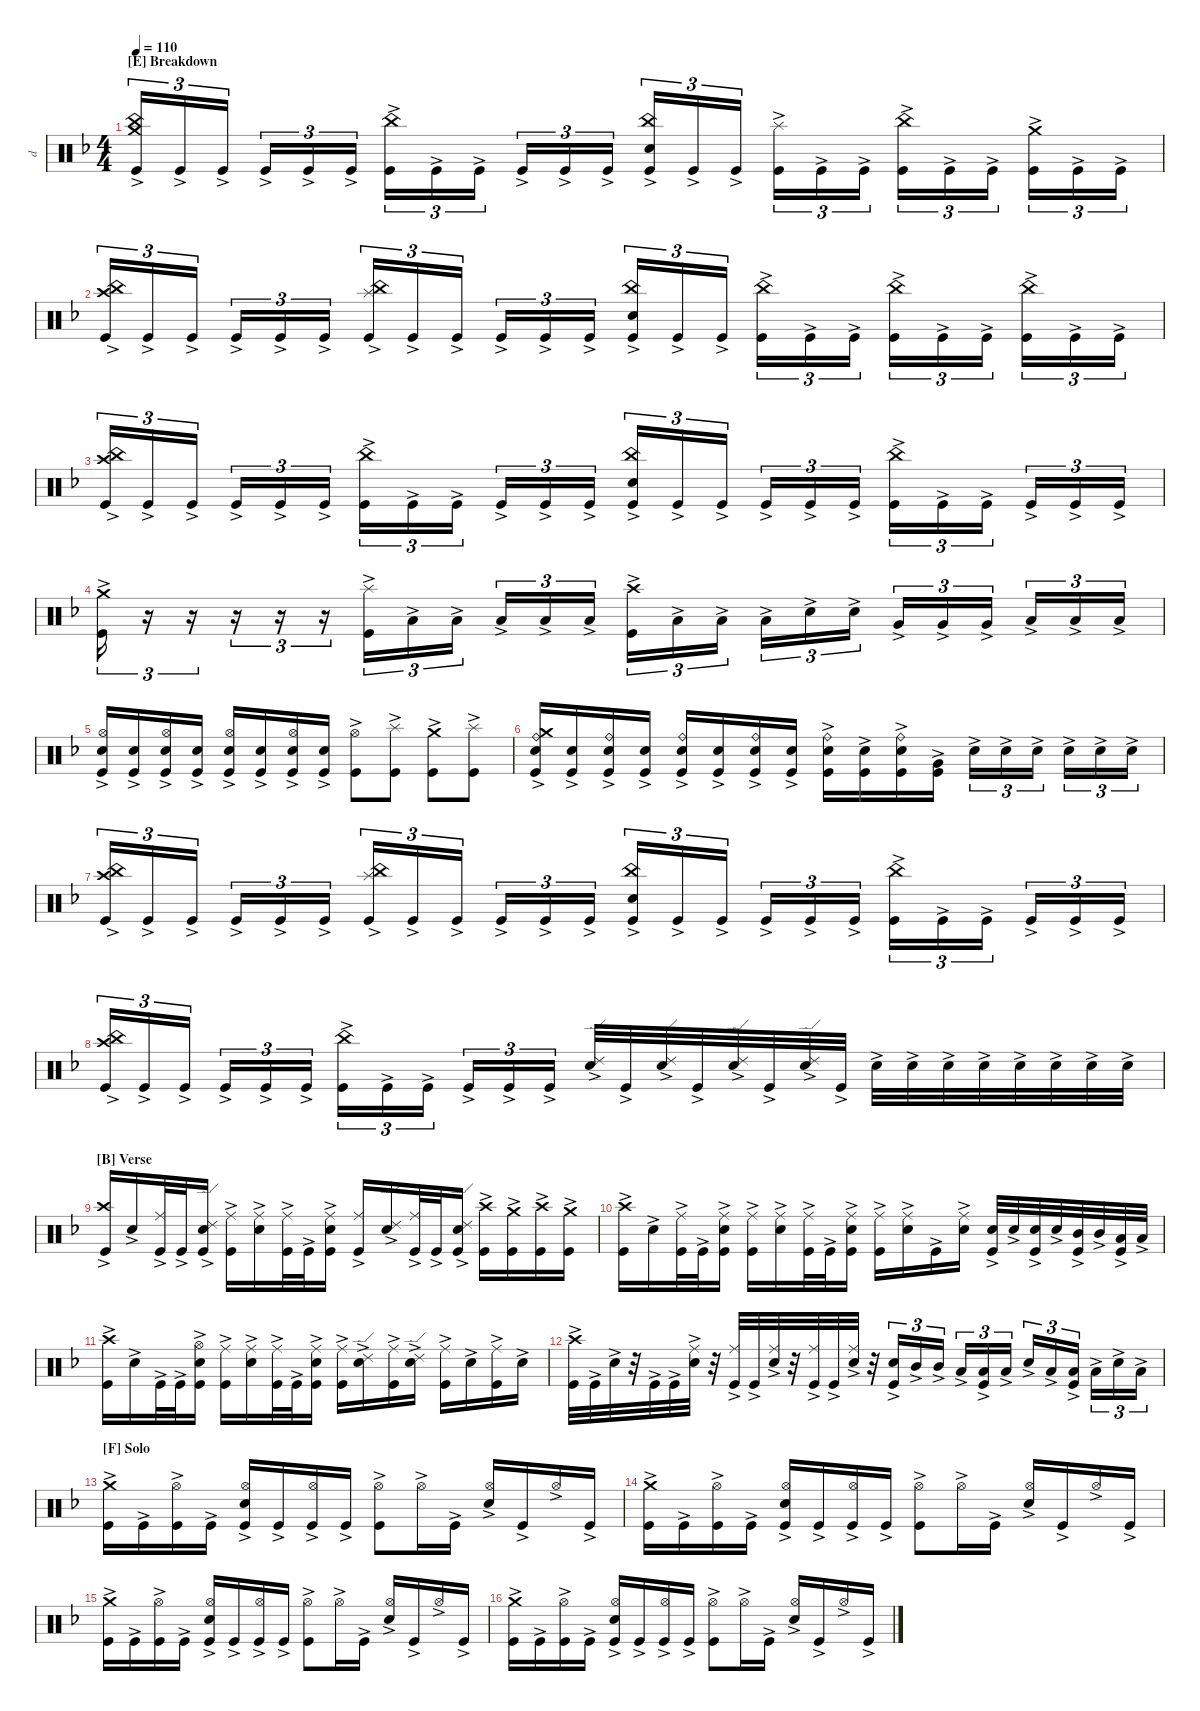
\defaultSystemsLayout 4
\hideDynamics
\bracketExtendMode nobrackets
\otherSystemsTrackNameOrientation horizontal
\track ("Drumkit" "d") {instrument percussion}
\staff {score}
\articulation defaults
\ts (4 4)
\section ("E" "Breakdown")
\tempo 110
\clef neutral
\ks dminor
("China (hit)"{ac acc forcenatural} "Crash medium (hit)"{ac acc forcenatural} "Kick (hit)"{ac acc forcenatural}).16{tu (3 2) dy mf beam Up} "Kick (hit)"{ac acc forcenatural}.16{tu (3 2) beam Up} "Kick (hit)"{ac acc forcenatural}.16{tu (3 2) beam Up} "Kick (hit)"{ac acc forcenatural}.16{tu (3 2) beam Up} "Kick (hit)"{ac acc forcenatural}.16{tu (3 2) beam Up} "Kick (hit)"{ac acc forcenatural}.16{tu (3 2) beam Up} ("China (hit)"{ac acc forcenatural} "Kick (hit)"{ac acc forcenatural}).16{tu (3 2) beam Down} "Kick (hit)"{ac acc forcenatural}.16{tu (3 2) beam Down} "Kick (hit)"{ac acc forcenatural}.16{tu (3 2) beam Down} "Kick (hit)"{ac acc forcenatural}.16{tu (3 2) beam Up} "Kick (hit)"{ac acc forcenatural}.16{tu (3 2) beam Up} "Kick (hit)"{ac acc forcenatural}.16{tu (3 2) beam Up} ("China (hit)"{ac acc forcenatural} "Snare (hit) 2"{ac acc forcenatural} "Kick (hit)"{ac acc forcenatural}).16{tu (3 2) beam Up} "Kick (hit)"{ac acc forcenatural}.16{tu (3 2) beam Up} "Kick (hit)"{ac acc forcenatural}.16{tu (3 2) beam Up} ("Splash (hit)"{ac acc forcenatural} "Kick (hit)"{ac acc forcenatural}).16{tu (3 2) beam Down} "Kick (hit)"{ac acc forcenatural}.16{tu (3 2) beam Down} "Kick (hit)"{ac acc forcenatural}.16{tu (3 2) beam Down} ("China (hit)"{ac acc forcenatural} "Kick (hit)"{ac acc forcenatural}).16{tu (3 2) beam Down} "Kick (hit)"{ac acc forcenatural}.16{tu (3 2) beam Down} "Kick (hit)"{ac acc forcenatural}.16{tu (3 2) beam Down} ("Crash medium (hit)"{ac acc forcenatural} "Kick (hit)"{ac acc forcenatural}).16{tu (3 2) beam Down} "Kick (hit)"{ac acc forcenatural}.16{tu (3 2) beam Down} "Kick (hit)"{ac acc forcenatural}.16{tu (3 2) beam Down} |
("China (hit)"{ac acc forcenatural} "Crash high (hit)"{ac acc forcenatural} "Kick (hit)"{ac acc forcenatural}).16{tu (3 2) beam Up} "Kick (hit)"{ac acc forcenatural}.16{tu (3 2) beam Up} "Kick (hit)"{ac acc forcenatural}.16{tu (3 2) beam Up} "Kick (hit)"{ac acc forcenatural}.16{tu (3 2) beam Up} "Kick (hit)"{ac acc forcenatural}.16{tu (3 2) beam Up} "Kick (hit)"{ac acc forcenatural}.16{tu (3 2) beam Up} ("China (hit)"{ac acc forcenatural} "Splash (hit)"{ac acc forcenatural} "Kick (hit)"{ac acc forcenatural}).16{tu (3 2) beam Up} "Kick (hit)"{ac acc forcenatural}.16{tu (3 2) beam Up} "Kick (hit)"{ac acc forcenatural}.16{tu (3 2) beam Up} "Kick (hit)"{ac acc forcenatural}.16{tu (3 2) beam Up} "Kick (hit)"{ac acc forcenatural}.16{tu (3 2) beam Up} "Kick (hit)"{ac acc forcenatural}.16{tu (3 2) beam Up} ("China (hit)"{ac acc forcenatural} "Snare (hit) 2"{ac acc forcenatural} "Kick (hit)"{ac acc forcenatural}).16{tu (3 2) beam Up} "Kick (hit)"{ac acc forcenatural}.16{tu (3 2) beam Up} "Kick (hit)"{ac acc forcenatural}.16{tu (3 2) beam Up} ("China (hit)"{ac acc forcenatural} "Kick (hit)"{ac acc forcenatural}).16{tu (3 2) beam Down} "Kick (hit)"{ac acc forcenatural}.16{tu (3 2) beam Down} "Kick (hit)"{ac acc forcenatural}.16{tu (3 2) beam Down} ("China (hit)"{ac acc forcenatural} "Kick (hit)"{ac acc forcenatural}).16{tu (3 2) beam Down} "Kick (hit)"{ac acc forcenatural}.16{tu (3 2) beam Down} "Kick (hit)"{ac acc forcenatural}.16{tu (3 2) beam Down} ("China (hit)"{ac acc forcenatural} "Kick (hit)"{ac acc forcenatural}).16{tu (3 2) beam Down} "Kick (hit)"{ac acc forcenatural}.16{tu (3 2) beam Down} "Kick (hit)"{ac acc forcenatural}.16{tu (3 2) beam Down} |
("China (hit)"{ac acc forcenatural} "Crash high (hit)"{ac acc forcenatural} "Kick (hit)"{ac acc forcenatural}).16{tu (3 2) beam Up} "Kick (hit)"{ac acc forcenatural}.16{tu (3 2) beam Up} "Kick (hit)"{ac acc forcenatural}.16{tu (3 2) beam Up} "Kick (hit)"{ac acc forcenatural}.16{tu (3 2) beam Up} "Kick (hit)"{ac acc forcenatural}.16{tu (3 2) beam Up} "Kick (hit)"{ac acc forcenatural}.16{tu (3 2) beam Up} ("China (hit)"{ac acc forcenatural} "Kick (hit)"{ac acc forcenatural}).16{tu (3 2) beam Down} "Kick (hit)"{ac acc forcenatural}.16{tu (3 2) beam Down} "Kick (hit)"{ac acc forcenatural}.16{tu (3 2) beam Down} "Kick (hit)"{ac acc forcenatural}.16{tu (3 2) beam Up} "Kick (hit)"{ac acc forcenatural}.16{tu (3 2) beam Up} "Kick (hit)"{ac acc forcenatural}.16{tu (3 2) beam Up} ("China (hit)"{ac acc forcenatural} "Snare (hit) 2"{ac acc forcenatural} "Kick (hit)"{ac acc forcenatural}).16{tu (3 2) beam Up} "Kick (hit)"{ac acc forcenatural}.16{tu (3 2) beam Up} "Kick (hit)"{ac acc forcenatural}.16{tu (3 2) beam Up} "Kick (hit)"{ac acc forcenatural}.16{tu (3 2) beam Up} "Kick (hit)"{ac acc forcenatural}.16{tu (3 2) beam Up} "Kick (hit)"{ac acc forcenatural}.16{tu (3 2) beam Up} ("China (hit)"{ac acc forcenatural} "Kick (hit)"{ac acc forcenatural}).16{tu (3 2) beam Down} "Kick (hit)"{ac acc forcenatural}.16{tu (3 2) beam Down} "Kick (hit)"{ac acc forcenatural}.16{tu (3 2) beam Down} "Kick (hit)"{ac acc forcenatural}.16{tu (3 2) beam Up} "Kick (hit)"{ac acc forcenatural}.16{tu (3 2) beam Up} "Kick (hit)"{ac acc forcenatural}.16{tu (3 2) beam Up} |
("Crash medium (hit)"{ac acc forcenatural} "Kick (hit)"{ac acc forcenatural}).16{tu (3 2) beam Down} r.16{tu (3 2) beam Down} r.16{tu (3 2) beam Down} r.16{tu (3 2) beam Down} r.16{tu (3 2) beam Down} r.16{tu (3 2) beam Down} ("Splash (hit)"{ac acc forcenatural} "Kick (hit)"{ac acc forcenatural}).16{tu (3 2) beam Down} "Low Tom (hit)"{ac acc forcenatural}.16{tu (3 2) beam Down} "Low Tom (hit)"{ac acc forcenatural}.16{tu (3 2) beam Down} "Low Tom (hit)"{ac acc forcenatural}.16{tu (3 2) beam Up} "Low Tom (hit)"{ac acc forcenatural}.16{tu (3 2) beam Up} "Low Tom (hit)"{ac acc forcenatural}.16{tu (3 2) beam Up} ("Crash high (hit)"{ac acc forcenatural} "Kick (hit)"{ac acc forcenatural}).16{tu (3 2) beam Down} "Low Tom (hit)"{ac acc forcenatural}.16{tu (3 2) beam Down} "Low Tom (hit)"{ac acc forcenatural}.16{tu (3 2) beam Down} "Low Tom (hit)"{ac acc forcenatural}.16{tu (3 2) beam Down} "Snare (hit) 2"{ac acc forcenatural}.16{tu (3 2) beam Down} "Snare (hit) 2"{ac acc forcenatural}.16{tu (3 2) beam Down} "Very Low Tom (hit)"{ac acc forcenatural}.16{tu (3 2) beam Up} "Very Low Tom (hit)"{ac acc forcenatural}.16{tu (3 2) beam Up} "Very Low Tom (hit)"{ac acc forcenatural}.16{tu (3 2) beam Up} "Low Floor Tom (hit)"{ac acc forcenatural}.16{tu (3 2) beam Up} "Low Floor Tom (hit)"{ac acc forcenatural}.16{tu (3 2) beam Up} "Low Floor Tom (hit)"{ac acc forcenatural}.16{tu (3 2) beam Up} |
("Hi-Hat (open)"{ac acc forcenatural} "Snare (hit) 2"{ac acc forcenatural} "Kick (hit)"{ac acc forcenatural}).16{beam Up} ("Snare (hit) 2"{ac acc forcenatural} "Kick (hit)"{ac acc forcenatural}).16{beam Up} ("Hi-Hat (open)"{ac acc forcenatural} "Snare (hit) 2"{ac acc forcenatural} "Kick (hit)"{ac acc forcenatural}).16{beam Up} ("Snare (hit) 2"{ac acc forcenatural} "Kick (hit)"{ac acc forcenatural}).16{beam Up} ("Hi-Hat (open)"{ac acc forcenatural} "Snare (hit) 2"{ac acc forcenatural} "Kick (hit)"{ac acc forcenatural}).16{beam Up} ("Snare (hit) 2"{ac acc forcenatural} "Kick (hit)"{ac acc forcenatural}).16{beam Up} ("Hi-Hat (open)"{ac acc forcenatural} "Snare (hit) 2"{ac acc forcenatural} "Kick (hit)"{ac acc forcenatural}).16{beam Up} ("Snare (hit) 2"{ac acc forcenatural} "Kick (hit)"{ac acc forcenatural}).16{beam Up} ("Hi-Hat (open)"{ac acc forcenatural} "Kick (hit)"{ac acc forcenatural}).8{beam Down} ("Splash (hit)"{ac acc forcenatural} "Kick (hit)"{ac acc forcenatural}).8{beam Down} ("Crash medium (hit)"{ac acc forcenatural} "Kick (hit)"{ac acc forcenatural}).8{beam Down} ("Splash (hit)"{ac acc forcenatural} "Kick (hit)"{ac acc forcenatural}).8{beam Down} |
("Crash medium (hit)"{ac acc forcenatural} "Ride (bell)"{ac acc forcenatural} "Snare (hit) 2"{ac acc forcenatural} "Kick (hit)"{ac acc forcenatural}).16{beam Up} ("Snare (hit) 2"{ac acc forcenatural} "Kick (hit)"{ac acc forcenatural}).16{beam Up} ("Ride (bell)"{ac acc forcenatural} "Snare (hit) 2"{ac acc forcenatural} "Kick (hit)"{ac acc forcenatural}).16{beam Up} ("Snare (hit) 2"{ac acc forcenatural} "Kick (hit)"{ac acc forcenatural}).16{beam Up} ("Ride (bell)"{ac acc forcenatural} "Snare (hit) 2"{ac acc forcenatural} "Kick (hit)"{ac acc forcenatural}).16{beam Up} ("Snare (hit) 2"{ac acc forcenatural} "Kick (hit)"{ac acc forcenatural}).16{beam Up} ("Ride (bell)"{ac acc forcenatural} "Snare (hit) 2"{ac acc forcenatural} "Kick (hit)"{ac acc forcenatural}).16{beam Up} ("Snare (hit) 2"{ac acc forcenatural} "Kick (hit)"{ac acc forcenatural}).16{beam Up} ("Ride (bell)"{ac acc forcenatural} "Snare (hit) 2"{ac acc forcenatural} "Kick (hit)"{ac acc forcenatural}).16{beam Down} ("Snare (hit) 2"{ac acc forcenatural} "Kick (hit)"{ac acc forcenatural}).16{beam Down} ("Ride (bell)"{ac acc forcenatural} "Snare (hit) 2"{ac acc forcenatural} "Kick (hit)"{ac acc forcenatural}).16{beam Down} ("Very Low Tom (hit)"{ac acc forcenatural} "Kick (hit)"{ac acc forcenatural}).16{beam Down} "Snare (hit) 2"{ac acc forcenatural}.16{tu (3 2) beam Down} "Snare (hit) 2"{ac acc forcenatural}.16{tu (3 2) beam Down} "Snare (hit) 2"{ac acc forcenatural}.16{tu (3 2) beam Down} "Snare (hit) 2"{ac acc forcenatural}.16{tu (3 2) beam Down} "Snare (hit) 2"{ac acc forcenatural}.16{tu (3 2) beam Down} "Snare (hit) 2"{ac acc forcenatural}.16{tu (3 2) beam Down} |
("China (hit)"{ac acc forcenatural} "Crash high (hit)"{ac acc forcenatural} "Kick (hit)"{ac acc forcenatural}).16{tu (3 2) beam Up} "Kick (hit)"{ac acc forcenatural}.16{tu (3 2) beam Up} "Kick (hit)"{ac acc forcenatural}.16{tu (3 2) beam Up} "Kick (hit)"{ac acc forcenatural}.16{tu (3 2) beam Up} "Kick (hit)"{ac acc forcenatural}.16{tu (3 2) beam Up} "Kick (hit)"{ac acc forcenatural}.16{tu (3 2) beam Up} ("China (hit)"{ac acc forcenatural} "Splash (hit)"{ac acc forcenatural} "Kick (hit)"{ac acc forcenatural}).16{tu (3 2) beam Up} "Kick (hit)"{ac acc forcenatural}.16{tu (3 2) beam Up} "Kick (hit)"{ac acc forcenatural}.16{tu (3 2) beam Up} "Kick (hit)"{ac acc forcenatural}.16{tu (3 2) beam Up} "Kick (hit)"{ac acc forcenatural}.16{tu (3 2) beam Up} "Kick (hit)"{ac acc forcenatural}.16{tu (3 2) beam Up} ("China (hit)"{ac acc forcenatural} "Snare (hit) 2"{ac acc forcenatural} "Kick (hit)"{ac acc forcenatural}).16{tu (3 2) beam Up} "Kick (hit)"{ac acc forcenatural}.16{tu (3 2) beam Up} "Kick (hit)"{ac acc forcenatural}.16{tu (3 2) beam Up} "Kick (hit)"{ac acc forcenatural}.16{tu (3 2) beam Up} "Kick (hit)"{ac acc forcenatural}.16{tu (3 2) beam Up} "Kick (hit)"{ac acc forcenatural}.16{tu (3 2) beam Up} ("China (hit)"{ac acc forcenatural} "Kick (hit)"{ac acc forcenatural}).16{tu (3 2) beam Down} "Kick (hit)"{ac acc forcenatural}.16{tu (3 2) beam Down} "Kick (hit)"{ac acc forcenatural}.16{tu (3 2) beam Down} "Kick (hit)"{ac acc forcenatural}.16{tu (3 2) beam Up} "Kick (hit)"{ac acc forcenatural}.16{tu (3 2) beam Up} "Kick (hit)"{ac acc forcenatural}.16{tu (3 2) beam Up} |
("China (hit)"{ac acc forcenatural} "Crash high (hit)"{ac acc forcenatural} "Kick (hit)"{ac acc forcenatural}).16{tu (3 2) beam Up} "Kick (hit)"{ac acc forcenatural}.16{tu (3 2) beam Up} "Kick (hit)"{ac acc forcenatural}.16{tu (3 2) beam Up} "Kick (hit)"{ac acc forcenatural}.16{tu (3 2) beam Up} "Kick (hit)"{ac acc forcenatural}.16{tu (3 2) beam Up} "Kick (hit)"{ac acc forcenatural}.16{tu (3 2) beam Up} ("China (hit)"{ac acc forcenatural} "Kick (hit)"{ac acc forcenatural}).16{tu (3 2) beam Down} "Kick (hit)"{ac acc forcenatural}.16{tu (3 2) beam Down} "Kick (hit)"{ac acc forcenatural}.16{tu (3 2) beam Down} "Kick (hit)"{ac acc forcenatural}.16{tu (3 2) beam Up} "Kick (hit)"{ac acc forcenatural}.16{tu (3 2) beam Up} "Kick (hit)"{ac acc forcenatural}.16{tu (3 2) beam Up} ("Ride (edge) 2"{ac acc forcenatural} "Snare (hit) 2"{ac acc forcenatural}).32{beam Up} "Kick (hit)"{ac acc forcenatural}.32{beam Up} ("Ride (edge) 2"{ac acc forcenatural} "Snare (hit) 2"{ac acc forcenatural}).32{beam Up} "Kick (hit)"{ac acc forcenatural}.32{beam Up} ("Ride (edge) 2"{ac acc forcenatural} "Snare (hit) 2"{ac acc forcenatural}).32{beam Up} "Kick (hit)"{ac acc forcenatural}.32{beam Up} ("Ride (edge) 2"{ac acc forcenatural} "Snare (hit) 2"{ac acc forcenatural}).32{beam Up} "Kick (hit)"{ac acc forcenatural}.32{beam Up} "Snare (hit) 2"{ac acc forcenatural}.32{beam Down} "Snare (hit) 2"{ac acc forcenatural}.32{beam Down} "Snare (hit) 2"{ac acc forcenatural}.32{beam Down} "Snare (hit) 2"{ac acc forcenatural}.32{beam Down} "Snare (hit) 2"{ac acc forcenatural}.32{beam Down} "Snare (hit) 2"{ac acc forcenatural}.32{beam Down} "Snare (hit) 2"{ac acc forcenatural}.32{beam Down} "Snare (hit) 2"{ac acc forcenatural}.32{beam Down} |
\section ("B" "Verse")
("Crash high (hit)"{ac acc forcenatural} "Kick (hit)"{ac acc forcenatural}).16{beam Up} "Snare (hit) 2"{ac acc forcenatural}.16{beam Up} ("Ride (middle)"{ac acc forcenatural} "Kick (hit)"{ac acc forcenatural}).32{beam Up} "Kick (hit)"{ac acc forcenatural}.32{beam Up} ("Ride (edge) 2"{ac acc forcenatural} "Snare (hit) 2"{ac acc forcenatural} "Kick (hit)"{ac acc forcenatural}).16{beam Up} ("Ride (middle)"{ac acc forcenatural} "Kick (hit)"{ac acc forcenatural}).16{beam Down} ("Ride (middle)"{ac acc forcenatural} "Snare (hit) 2"{ac acc forcenatural}).16{beam Down} ("Ride (middle)"{ac acc forcenatural} "Kick (hit)"{ac acc forcenatural}).32{beam Down} "Kick (hit)"{ac acc forcenatural}.32{beam Down} ("Ride (middle)"{ac acc forcenatural} "Snare (hit) 2"{ac acc forcenatural} "Kick (hit)"{ac acc forcenatural}).16{beam Down} ("Ride (middle)"{ac acc forcenatural} "Kick (hit)"{ac acc forcenatural}).16{beam Up} ("Ride (edge) 2"{ac acc forcenatural} "Snare (hit) 2"{ac acc forcenatural}).16{beam Up} ("Ride (middle)"{ac acc forcenatural} "Kick (hit)"{ac acc forcenatural}).32{beam Up} "Kick (hit)"{ac acc forcenatural}.32{beam Up} ("Ride (edge) 2"{ac acc forcenatural} "Snare (hit) 2"{ac acc forcenatural} "Kick (hit)"{ac acc forcenatural}).16{beam Up} ("Crash high (hit)"{ac acc forcenatural} "Kick (hit)"{ac acc forcenatural}).16{beam Down} ("Crash medium (hit)"{ac acc forcenatural} "Kick (hit)"{ac acc forcenatural}).16{beam Down} ("Crash high (hit)"{ac acc forcenatural} "Kick (hit)"{ac acc forcenatural}).16{beam Down} ("Crash medium (hit)"{ac acc forcenatural} "Kick (hit)"{ac acc forcenatural}).16{beam Down} |
("Crash high (hit)"{ac acc forcenatural} "Kick (hit)"{ac acc forcenatural}).16{dy ff beam Down} "Snare (hit) 2"{ac acc forcenatural}.16{dy mf beam Down} ("Ride (middle)"{ac acc forcenatural} "Kick (hit)"{ac acc forcenatural}).32{beam Down} "Kick (hit)"{ac acc forcenatural}.32{beam Down} ("Ride (middle)"{ac acc forcenatural} "Snare (hit) 2"{ac acc forcenatural} "Kick (hit)"{ac acc forcenatural}).16{beam Down} ("Ride (middle)"{ac acc forcenatural} "Kick (hit)"{ac acc forcenatural}).16{beam Down} ("Ride (middle)"{ac acc forcenatural} "Snare (hit) 2"{ac acc forcenatural}).16{beam Down} ("Ride (middle)"{ac acc forcenatural} "Kick (hit)"{ac acc forcenatural}).32{beam Down} "Kick (hit)"{ac acc forcenatural}.32{beam Down} ("Ride (middle)"{ac acc forcenatural} "Snare (hit) 2"{ac acc forcenatural} "Kick (hit)"{ac acc forcenatural}).16{beam Down} ("Ride (middle)"{ac acc forcenatural} "Kick (hit)"{ac acc forcenatural}).16{beam Down} ("Ride (middle)"{ac acc forcenatural} "Snare (hit) 2"{ac acc forcenatural}).16{beam Down} "Kick (hit)"{ac acc forcenatural}.16{beam Down} ("Ride (middle)"{ac acc forcenatural} "Snare (hit) 2"{ac acc forcenatural}).16{beam Down} ("Snare (hit) 2"{ac acc forcenatural} "Kick (hit)"{ac acc forcenatural}).32{beam Up} "Snare (hit) 2"{ac acc forcenatural}.32{beam Up} ("Snare (hit) 2"{ac acc forcenatural} "Kick (hit)"{ac acc forcenatural}).32{beam Up} "Snare (hit) 2"{ac acc forcenatural}.32{beam Up} ("Mid Tom (hit)"{ac acc forcenatural} "Kick (hit)"{ac acc forcenatural}).32{beam Up} "Mid Tom (hit)"{ac acc forcenatural}.32{beam Up} ("Low Tom (hit)"{ac acc forcenatural} "Kick (hit)"{ac acc forcenatural}).32{beam Up} "Low Tom (hit)"{ac acc forcenatural}.32{beam Up} |
("Crash high (hit)"{ac acc forcenatural} "Kick (hit)"{ac acc forcenatural}).16{beam Down} "Snare (hit) 2"{ac acc forcenatural}.16{beam Down} "Kick (hit)"{ac acc forcenatural}.32{beam Down} "Kick (hit)"{ac acc forcenatural}.32{beam Down} ("Hi-Hat (open)"{ac acc forcenatural} "Snare (hit) 2"{ac acc forcenatural} "Kick (hit)"{ac acc forcenatural}).16{beam Down} ("Ride (middle)"{ac acc forcenatural} "Kick (hit)"{ac acc forcenatural}).16{beam Down} ("Ride (middle)"{ac acc forcenatural} "Snare (hit) 2"{ac acc forcenatural}).16{beam Down} ("Ride (middle)"{ac acc forcenatural} "Kick (hit)"{ac acc forcenatural}).32{beam Down} "Kick (hit)"{ac acc forcenatural}.32{beam Down} ("Ride (middle)"{ac acc forcenatural} "Snare (hit) 2"{ac acc forcenatural} "Kick (hit)"{ac acc forcenatural}).16{beam Down} ("Ride (middle)"{ac acc forcenatural} "Kick (hit)"{ac acc forcenatural}).16{beam Down} ("Ride (edge) 2"{ac acc forcenatural} "Snare (hit) 2"{ac acc forcenatural}).16{beam Down} ("Ride (middle)"{ac acc forcenatural} "Kick (hit)"{ac acc forcenatural}).16{beam Down} ("Ride (edge) 2"{ac acc forcenatural} "Snare (hit) 2"{ac acc forcenatural}).16{beam Down} ("Ride (middle)"{ac acc forcenatural} "Kick (hit)"{ac acc forcenatural}).16{beam Down} "Snare (hit) 2"{ac acc forcenatural}.16{beam Down} ("Ride (middle)"{ac acc forcenatural} "Kick (hit)"{ac acc forcenatural}).16{beam Down} "Snare (hit) 2"{ac acc forcenatural}.16{beam Down} |
("Crash high (hit)"{ac acc forcenatural} "Kick (hit)"{ac acc forcenatural}).32{beam Down} "Kick (hit)"{ac acc forcenatural}.32{beam Down} "Snare (hit) 2"{ac acc forcenatural}.32{beam Down} r.32{beam Down} "Kick (hit)"{ac acc forcenatural}.32{beam Down} "Kick (hit)"{ac acc forcenatural}.32{beam Down} ("Ride (middle)"{ac acc forcenatural} "Snare (hit) 2"{ac acc forcenatural}).32{beam Down} r.32{beam Down} ("Ride (middle)"{ac acc forcenatural} "Kick (hit)"{ac acc forcenatural}).32{beam Up} "Kick (hit)"{ac acc forcenatural}.32{beam Up} ("Ride (middle)"{ac acc forcenatural} "Snare (hit) 2"{ac acc forcenatural}).32{beam Up} r.32{beam Up} ("Ride (middle)"{ac acc forcenatural} "Kick (hit)"{ac acc forcenatural}).32{beam Up} "Kick (hit)"{ac acc forcenatural}.32{beam Up} ("Ride (middle)"{ac acc forcenatural} "Snare (hit) 2"{ac acc forcenatural}).32{beam Up} r.32{beam Up} ("Snare (hit) 2"{ac acc forcenatural} "Kick (hit)"{ac acc forcenatural}).16{tu (3 2) beam Up} "Mid Tom (hit)"{ac acc forcenatural}.16{tu (3 2) beam Up} "Mid Tom (hit)"{ac acc forcenatural}.16{tu (3 2) beam Up} "Low Tom (hit)"{ac acc forcenatural}.16{tu (3 2) beam Up} ("Low Tom (hit)"{ac acc forcenatural} "Kick (hit)"{ac acc forcenatural}).16{tu (3 2) beam Up} "Low Tom (hit)"{ac acc forcenatural}.16{tu (3 2) beam Up} "Snare (hit) 2"{ac acc forcenatural}.16{tu (3 2) beam Up} "Low Tom (hit)"{ac acc forcenatural}.16{tu (3 2) beam Up} ("Low Tom (hit)"{ac acc forcenatural} "Kick (hit)"{ac acc forcenatural}).16{tu (3 2) beam Up} "Low Tom (hit)"{ac acc forcenatural}.16{tu (3 2) beam Down} "Snare (hit) 2"{ac acc forcenatural}.16{tu (3 2) beam Down} "Low Tom (hit)"{ac acc forcenatural}.16{tu (3 2) beam Down} |
\section ("F" "Solo")
("Crash medium (hit)"{ac acc forcenatural} "Kick (hit)"{ac acc forcenatural}).16{dy ff beam Down} "Kick (hit)"{ac acc forcenatural}.16{dy mf beam Down} ("Hi-Hat (open)"{ac acc forcenatural} "Kick (hit)"{ac acc forcenatural}).16{beam Down} "Kick (hit)"{ac acc forcenatural}.16{beam Down} ("Hi-Hat (open)"{ac acc forcenatural} "Snare (hit) 2"{ac acc forcenatural} "Kick (hit)"{ac acc forcenatural}).16{beam Up} "Kick (hit)"{ac acc forcenatural}.16{beam Up} ("Hi-Hat (open)"{ac acc forcenatural} "Kick (hit)"{ac acc forcenatural}).16{beam Up} "Kick (hit)"{ac acc forcenatural}.16{beam Up} ("Hi-Hat (open)"{ac acc forcenatural} "Kick (hit)"{ac acc forcenatural}).8{beam Down} "Hi-Hat (open)"{ac acc forcenatural}.16{beam Down} "Kick (hit)"{ac acc forcenatural}.16{beam Down} ("Hi-Hat (open)"{ac acc forcenatural} "Snare (hit) 2"{ac acc forcenatural}).16{beam Up} "Kick (hit)"{ac acc forcenatural}.16{beam Up} "Hi-Hat (open)"{ac acc forcenatural}.16{beam Up} "Kick (hit)"{ac acc forcenatural}.16{beam Up} |
("Crash medium (hit)"{ac acc forcenatural} "Kick (hit)"{ac acc forcenatural}).16{dy ff beam Down} "Kick (hit)"{ac acc forcenatural}.16{dy mf beam Down} ("Hi-Hat (open)"{ac acc forcenatural} "Kick (hit)"{ac acc forcenatural}).16{beam Down} "Kick (hit)"{ac acc forcenatural}.16{beam Down} ("Hi-Hat (open)"{ac acc forcenatural} "Snare (hit) 2"{ac acc forcenatural} "Kick (hit)"{ac acc forcenatural}).16{beam Up} "Kick (hit)"{ac acc forcenatural}.16{beam Up} ("Hi-Hat (open)"{ac acc forcenatural} "Kick (hit)"{ac acc forcenatural}).16{beam Up} "Kick (hit)"{ac acc forcenatural}.16{beam Up} ("Hi-Hat (open)"{ac acc forcenatural} "Kick (hit)"{ac acc forcenatural}).8{beam Down} "Hi-Hat (open)"{ac acc forcenatural}.16{beam Down} "Kick (hit)"{ac acc forcenatural}.16{beam Down} ("Hi-Hat (open)"{ac acc forcenatural} "Snare (hit) 2"{ac acc forcenatural}).16{beam Up} "Kick (hit)"{ac acc forcenatural}.16{beam Up} "Hi-Hat (open)"{ac acc forcenatural}.16{beam Up} "Kick (hit)"{ac acc forcenatural}.16{beam Up} |
("Crash medium (hit)"{ac acc forcenatural} "Kick (hit)"{ac acc forcenatural}).16{dy ff beam Down} "Kick (hit)"{ac acc forcenatural}.16{dy mf beam Down} ("Hi-Hat (open)"{ac acc forcenatural} "Kick (hit)"{ac acc forcenatural}).16{beam Down} "Kick (hit)"{ac acc forcenatural}.16{beam Down} ("Hi-Hat (open)"{ac acc forcenatural} "Snare (hit) 2"{ac acc forcenatural} "Kick (hit)"{ac acc forcenatural}).16{beam Up} "Kick (hit)"{ac acc forcenatural}.16{beam Up} ("Hi-Hat (open)"{ac acc forcenatural} "Kick (hit)"{ac acc forcenatural}).16{beam Up} "Kick (hit)"{ac acc forcenatural}.16{beam Up} ("Hi-Hat (open)"{ac acc forcenatural} "Kick (hit)"{ac acc forcenatural}).8{beam Down} "Hi-Hat (open)"{ac acc forcenatural}.16{beam Down} "Kick (hit)"{ac acc forcenatural}.16{beam Down} ("Hi-Hat (open)"{ac acc forcenatural} "Snare (hit) 2"{ac acc forcenatural}).16{beam Up} "Kick (hit)"{ac acc forcenatural}.16{beam Up} "Hi-Hat (open)"{ac acc forcenatural}.16{beam Up} "Kick (hit)"{ac acc forcenatural}.16{beam Up} |
("Crash medium (hit)"{ac acc forcenatural} "Kick (hit)"{ac acc forcenatural}).16{dy ff beam Down} "Kick (hit)"{ac acc forcenatural}.16{dy mf beam Down} ("Hi-Hat (open)"{ac acc forcenatural} "Kick (hit)"{ac acc forcenatural}).16{beam Down} "Kick (hit)"{ac acc forcenatural}.16{beam Down} ("Hi-Hat (open)"{ac acc forcenatural} "Snare (hit) 2"{ac acc forcenatural} "Kick (hit)"{ac acc forcenatural}).16{beam Up} "Kick (hit)"{ac acc forcenatural}.16{beam Up} ("Hi-Hat (open)"{ac acc forcenatural} "Kick (hit)"{ac acc forcenatural}).16{beam Up} "Kick (hit)"{ac acc forcenatural}.16{beam Up} ("Hi-Hat (open)"{ac acc forcenatural} "Kick (hit)"{ac acc forcenatural}).8{beam Down} "Hi-Hat (open)"{ac acc forcenatural}.16{beam Down} "Kick (hit)"{ac acc forcenatural}.16{beam Down} ("Hi-Hat (open)"{ac acc forcenatural} "Snare (hit) 2"{ac acc forcenatural}).16{beam Up} "Kick (hit)"{ac acc forcenatural}.16{beam Up} "Hi-Hat (open)"{ac acc forcenatural}.16{beam Up} "Kick (hit)"{ac acc forcenatural}.16{beam Up}
